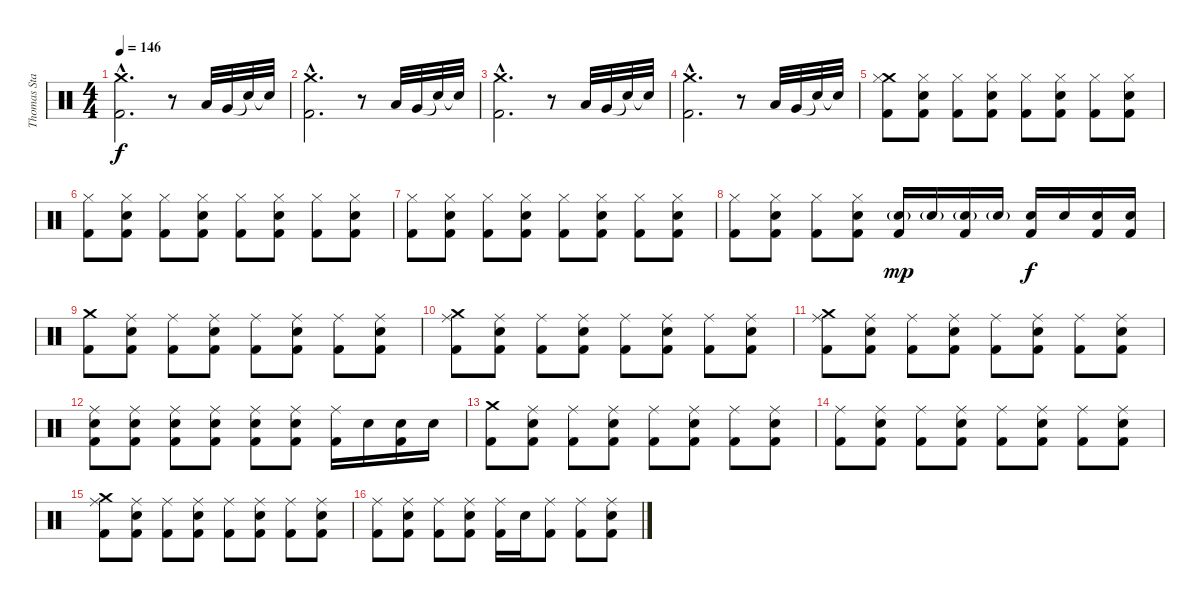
\track ("Thomas Stauch" "Thomas Sta") {instrument percussion}
\staff {score}
\articulation defaults
\ts (4 4)
\tempo 146
\clef neutral
\ks c
("Crash medium (hit)"{hac} "Kick (hit) 2"{hac}).2{d dy f} r.8 "Low Tom (hit)".32 "Very Low Tom (hit)".32 "Snare (hit)"{t}.32 "Snare (hit)"{t}.32 |
("Crash medium (hit)"{hac} "Kick (hit) 2"{hac}).2{d} r.8 "Low Tom (hit)".32 "Very Low Tom (hit)".32 "Snare (hit)"{t}.32 "Snare (hit)"{t}.32 |
("Crash medium (hit)"{hac} "Kick (hit) 2"{hac}).2{d} r.8 "Low Tom (hit)".32 "Very Low Tom (hit)".32 "Snare (hit)"{t}.32 "Snare (hit)"{t}.32 |
("Crash medium (hit)"{hac} "Kick (hit) 2"{hac}).2{d} r.8 "Low Tom (hit)".32 "Very Low Tom (hit)".32 "Snare (hit)"{t}.32 "Snare (hit)"{t}.32 |
("Crash medium (hit)" "Kick (hit) 2" "Hi-Hat (closed)").8 ("Electric Snare (hit)" "Kick (hit) 2" "Hi-Hat (closed)").8 ("Kick (hit) 2" "Hi-Hat (closed)").8 ("Electric Snare (hit)" "Kick (hit) 2" "Hi-Hat (closed)").8 ("Kick (hit) 2" "Hi-Hat (closed)").8 ("Electric Snare (hit)" "Kick (hit) 2" "Hi-Hat (closed)").8 ("Kick (hit) 2" "Hi-Hat (closed)").8 ("Electric Snare (hit)" "Kick (hit) 2" "Hi-Hat (closed)").8 |
("Kick (hit) 2" "Hi-Hat (closed)").8 ("Electric Snare (hit)" "Kick (hit) 2" "Hi-Hat (closed)").8 ("Kick (hit) 2" "Hi-Hat (closed)").8 ("Electric Snare (hit)" "Kick (hit) 2" "Hi-Hat (closed)").8 ("Kick (hit) 2" "Hi-Hat (closed)").8 ("Electric Snare (hit)" "Kick (hit) 2" "Hi-Hat (closed)").8 ("Kick (hit) 2" "Hi-Hat (closed)").8 ("Electric Snare (hit)" "Kick (hit) 2" "Hi-Hat (closed)").8 |
("Kick (hit) 2" "Hi-Hat (closed)").8 ("Electric Snare (hit)" "Kick (hit) 2" "Hi-Hat (closed)").8 ("Kick (hit) 2" "Hi-Hat (closed)").8 ("Electric Snare (hit)" "Kick (hit) 2" "Hi-Hat (closed)").8 ("Kick (hit) 2" "Hi-Hat (closed)").8 ("Electric Snare (hit)" "Kick (hit) 2" "Hi-Hat (closed)").8 ("Kick (hit) 2" "Hi-Hat (closed)").8 ("Electric Snare (hit)" "Kick (hit) 2" "Hi-Hat (closed)").8 |
("Kick (hit) 2" "Hi-Hat (closed)").8 ("Electric Snare (hit)" "Kick (hit) 2" "Hi-Hat (closed)").8 ("Kick (hit) 2" "Hi-Hat (closed)").8 ("Electric Snare (hit)" "Kick (hit) 2" "Hi-Hat (closed)").8 ("Electric Snare (hit)"{g} "Kick (hit) 2").16{dy mp} "Electric Snare (hit)"{g}.16 ("Electric Snare (hit)"{g} "Kick (hit) 2").16 "Electric Snare (hit)"{g}.16 ("Electric Snare (hit)" "Kick (hit) 2").16{dy f} "Electric Snare (hit)".16 ("Electric Snare (hit)" "Kick (hit) 2").16 ("Electric Snare (hit)" "Kick (hit) 2").16 |
("Crash medium (hit)" "Kick (hit) 2").8 ("Electric Snare (hit)" "Kick (hit) 2" "Ride (middle)").8 ("Kick (hit) 2" "Ride (middle)").8 ("Electric Snare (hit)" "Kick (hit) 2" "Ride (middle)").8 ("Kick (hit) 2" "Ride (middle)").8 ("Electric Snare (hit)" "Kick (hit) 2" "Ride (middle)").8 ("Kick (hit) 2" "Ride (middle)").8 ("Electric Snare (hit)" "Kick (hit) 2" "Ride (middle)").8 |
("Crash medium (hit)" "Kick (hit) 2" "Ride (middle)").8 ("Electric Snare (hit)" "Kick (hit) 2" "Ride (middle)").8 ("Kick (hit) 2" "Ride (middle)").8 ("Electric Snare (hit)" "Kick (hit) 2" "Ride (middle)").8 ("Kick (hit) 2" "Ride (middle)").8 ("Electric Snare (hit)" "Kick (hit) 2" "Ride (middle)").8 ("Kick (hit) 2" "Ride (middle)").8 ("Electric Snare (hit)" "Kick (hit) 2" "Ride (middle)").8 |
("Crash medium (hit)" "Kick (hit) 2" "Ride (middle)").8 ("Electric Snare (hit)" "Kick (hit) 2" "Ride (middle)").8 ("Kick (hit) 2" "Ride (middle)").8 ("Electric Snare (hit)" "Kick (hit) 2" "Ride (middle)").8 ("Kick (hit) 2" "Ride (middle)").8 ("Electric Snare (hit)" "Kick (hit) 2" "Ride (middle)").8 ("Kick (hit) 2" "Ride (middle)").8 ("Electric Snare (hit)" "Kick (hit) 2" "Ride (middle)").8 |
("Electric Snare (hit)" "Kick (hit) 2" "Ride (middle)").8 ("Electric Snare (hit)" "Kick (hit) 2" "Ride (middle)").8 ("Electric Snare (hit)" "Kick (hit) 2" "Ride (middle)").8 ("Electric Snare (hit)" "Kick (hit) 2" "Ride (middle)").8 ("Electric Snare (hit)" "Kick (hit) 2" "Ride (middle)").8 ("Electric Snare (hit)" "Kick (hit) 2" "Ride (middle)").8 ("Kick (hit) 2" "Ride (middle)").16 "Electric Snare (hit)".16 ("Electric Snare (hit)" "Kick (hit) 2").16 "Electric Snare (hit)".16 |
("Crash medium (hit)" "Kick (hit) 2").8 ("Electric Snare (hit)" "Kick (hit) 2" "Ride (middle)").8 ("Kick (hit) 2" "Ride (middle)").8 ("Electric Snare (hit)" "Kick (hit) 2" "Ride (middle)").8 ("Kick (hit) 2" "Ride (middle)").8 ("Electric Snare (hit)" "Kick (hit) 2" "Ride (middle)").8 ("Kick (hit) 2" "Ride (middle)").8 ("Electric Snare (hit)" "Kick (hit) 2" "Ride (middle)").8 |
("Kick (hit) 2" "Ride (middle)").8 ("Electric Snare (hit)" "Kick (hit) 2" "Ride (middle)").8 ("Kick (hit) 2" "Ride (middle)").8 ("Electric Snare (hit)" "Kick (hit) 2" "Ride (middle)").8 ("Kick (hit) 2" "Ride (middle)").8 ("Electric Snare (hit)" "Kick (hit) 2" "Ride (middle)").8 ("Kick (hit) 2" "Ride (middle)").8 ("Electric Snare (hit)" "Kick (hit) 2" "Ride (middle)").8 |
("Crash medium (hit)" "Kick (hit) 2" "Ride (middle)").8 ("Electric Snare (hit)" "Kick (hit) 2" "Ride (middle)").8 ("Kick (hit) 2" "Ride (middle)").8 ("Electric Snare (hit)" "Kick (hit) 2" "Ride (middle)").8 ("Kick (hit) 2" "Ride (middle)").8 ("Electric Snare (hit)" "Kick (hit) 2" "Ride (middle)").8 ("Kick (hit) 2" "Ride (middle)").8 ("Electric Snare (hit)" "Kick (hit) 2" "Ride (middle)").8 |
("Kick (hit) 2" "Ride (middle)").8 ("Electric Snare (hit)" "Kick (hit) 2" "Ride (middle)").8 ("Kick (hit) 2" "Ride (middle)").8 ("Electric Snare (hit)" "Kick (hit) 2" "Ride (middle)").8 ("Kick (hit) 2" "Ride (middle)").16 "Electric Snare (hit)".16 ("Kick (hit) 2" "Ride (middle)").8 ("Kick (hit) 2" "Ride (middle)").8 ("Electric Snare (hit)" "Kick (hit) 2" "Ride (middle)").8
